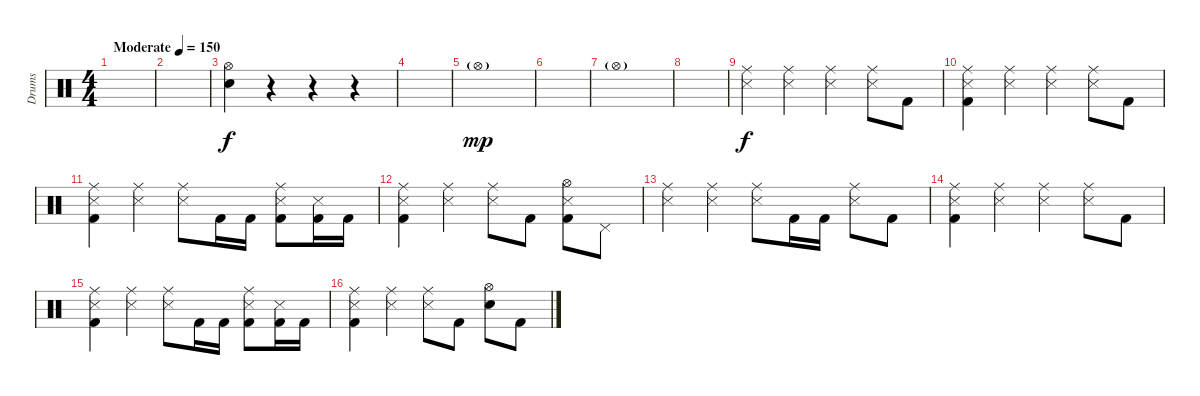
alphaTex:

\track ("Drums" "Drums") {instrument percussion}
\staff {score}
\articulation defaults
\ts (4 4)
\tempo (150 "Moderate")
\clef neutral
\ks c
|
|
("Electric Snare (hit)" "Hi-Hat (open)").4 r.4 r.4 r.4 |
|
"Hi-Hat (open)"{g}.1{dy mp} |
|
"Hi-Hat (open)"{g}.1 |
|
("Ride (middle)" "Snare (side stick) 3").4{dy f} ("Ride (middle)" "Snare (side stick) 3").4 ("Ride (middle)" "Snare (side stick) 3").4 ("Ride (middle)" "Snare (side stick) 3").8 "Kick (hit) 2".8 |
("Ride (middle)" "Snare (side stick) 3" "Kick (hit) 2").4 ("Ride (middle)" "Snare (side stick) 3").4 ("Ride (middle)" "Snare (side stick) 3").4 ("Ride (middle)" "Snare (side stick) 3").8 "Kick (hit) 2".8 |
("Ride (middle)" "Snare (side stick) 3" "Kick (hit) 2").4 ("Ride (middle)" "Snare (side stick) 3").4 ("Ride (middle)" "Snare (side stick) 3").8 "Kick (hit) 2".16 "Kick (hit) 2".16 ("Ride (middle)" "Snare (side stick) 3" "Kick (hit) 2").8 ("Snare (side stick) 3" "Kick (hit) 2").16 "Kick (hit) 2".16 |
("Ride (middle)" "Snare (side stick) 3" "Kick (hit) 2").4 ("Ride (middle)" "Snare (side stick) 3").4 ("Ride (middle)" "Snare (side stick) 3").8 "Kick (hit) 2".8 ("Hi-Hat (open)" "Snare (side stick) 3" "Kick (hit) 2").8 "Pedal Hi-Hat (hit)".8 |
("Ride (middle)" "Snare (side stick) 3").4 ("Ride (middle)" "Snare (side stick) 3").4 ("Ride (middle)" "Snare (side stick) 3").8 "Kick (hit) 2".16 "Kick (hit) 2".16 ("Ride (middle)" "Snare (side stick) 3").8 "Kick (hit) 2".8 |
("Ride (middle)" "Snare (side stick) 3" "Kick (hit) 2").4 ("Ride (middle)" "Snare (side stick) 3").4 ("Ride (middle)" "Snare (side stick) 3").4 ("Ride (middle)" "Snare (side stick) 3").8 "Kick (hit) 2".8 |
("Ride (middle)" "Snare (side stick) 3" "Kick (hit) 2").4 ("Ride (middle)" "Snare (side stick) 3").4 ("Ride (middle)" "Snare (side stick) 3").8 "Kick (hit) 2".16 "Kick (hit) 2".16 ("Ride (middle)" "Snare (side stick) 3" "Kick (hit) 2").8 ("Snare (side stick) 3" "Kick (hit) 2").16 "Kick (hit) 2".16 |
("Ride (middle)" "Snare (side stick) 3" "Kick (hit) 2").4 ("Ride (middle)" "Snare (side stick) 3").4 ("Ride (middle)" "Snare (side stick) 3").8 "Kick (hit) 2".8 ("Hi-Hat (open)" "Electric Snare (hit)").8 "Kick (hit) 2".8
